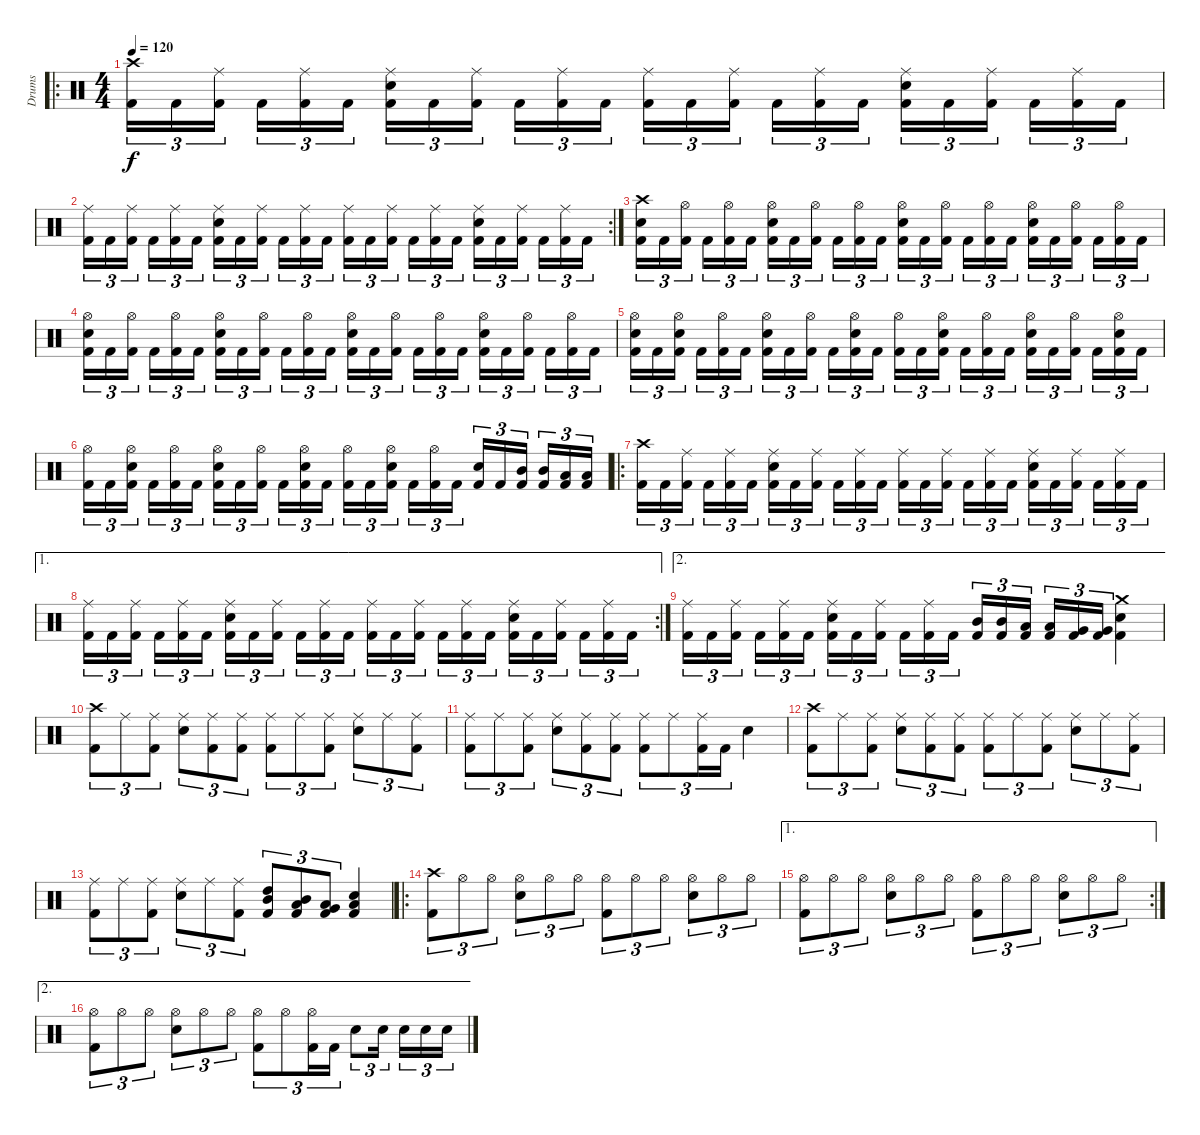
\track ("Drums" "Drums") {instrument percussion}
\staff {score}
\articulation defaults
\ro
\ts (4 4)
\tempo 120
\clef neutral
\ks c
("Crash high (hit)" "Kick (hit) 2").16{tu (3 2) dy f} "Kick (hit) 2".16{tu (3 2)} ("Ride (middle)" "Kick (hit) 2").16{tu (3 2)} "Kick (hit) 2".16{tu (3 2)} ("Ride (middle)" "Kick (hit) 2").16{tu (3 2)} "Kick (hit) 2".16{tu (3 2)} ("Ride (middle)" "Electric Snare (hit)" "Kick (hit) 2").16{tu (3 2)} "Kick (hit) 2".16{tu (3 2)} ("Ride (middle)" "Kick (hit) 2").16{tu (3 2)} "Kick (hit) 2".16{tu (3 2)} ("Ride (middle)" "Kick (hit) 2").16{tu (3 2)} "Kick (hit) 2".16{tu (3 2)} ("Ride (middle)" "Kick (hit) 2").16{tu (3 2)} "Kick (hit) 2".16{tu (3 2)} ("Ride (middle)" "Kick (hit) 2").16{tu (3 2)} "Kick (hit) 2".16{tu (3 2)} ("Ride (middle)" "Kick (hit) 2").16{tu (3 2)} "Kick (hit) 2".16{tu (3 2)} ("Ride (middle)" "Electric Snare (hit)" "Kick (hit) 2").16{tu (3 2)} "Kick (hit) 2".16{tu (3 2)} ("Ride (middle)" "Kick (hit) 2").16{tu (3 2)} "Kick (hit) 2".16{tu (3 2)} ("Ride (middle)" "Kick (hit) 2").16{tu (3 2)} "Kick (hit) 2".16{tu (3 2)} |
\rc 2
("Ride (middle)" "Kick (hit) 2").16{tu (3 2)} "Kick (hit) 2".16{tu (3 2)} ("Ride (middle)" "Kick (hit) 2").16{tu (3 2)} "Kick (hit) 2".16{tu (3 2)} ("Ride (middle)" "Kick (hit) 2").16{tu (3 2)} "Kick (hit) 2".16{tu (3 2)} ("Ride (middle)" "Electric Snare (hit)" "Kick (hit) 2").16{tu (3 2)} "Kick (hit) 2".16{tu (3 2)} ("Ride (middle)" "Kick (hit) 2").16{tu (3 2)} "Kick (hit) 2".16{tu (3 2)} ("Ride (middle)" "Kick (hit) 2").16{tu (3 2)} "Kick (hit) 2".16{tu (3 2)} ("Ride (middle)" "Kick (hit) 2").16{tu (3 2)} "Kick (hit) 2".16{tu (3 2)} ("Ride (middle)" "Kick (hit) 2").16{tu (3 2)} "Kick (hit) 2".16{tu (3 2)} ("Ride (middle)" "Kick (hit) 2").16{tu (3 2)} "Kick (hit) 2".16{tu (3 2)} ("Ride (middle)" "Electric Snare (hit)" "Kick (hit) 2").16{tu (3 2)} "Kick (hit) 2".16{tu (3 2)} ("Ride (middle)" "Kick (hit) 2").16{tu (3 2)} "Kick (hit) 2".16{tu (3 2)} ("Ride (middle)" "Kick (hit) 2").16{tu (3 2)} "Kick (hit) 2".16{tu (3 2)} |
("Crash high (hit)" "Electric Snare (hit)" "Kick (hit) 2").16{tu (3 2)} "Kick (hit) 2".16{tu (3 2)} ("Hi-Hat (open)" "Kick (hit) 2").16{tu (3 2)} "Kick (hit) 2".16{tu (3 2)} ("Hi-Hat (open)" "Kick (hit) 2").16{tu (3 2)} "Kick (hit) 2".16{tu (3 2)} ("Hi-Hat (open)" "Electric Snare (hit)" "Kick (hit) 2").16{tu (3 2)} "Kick (hit) 2".16{tu (3 2)} ("Hi-Hat (open)" "Kick (hit) 2").16{tu (3 2)} "Kick (hit) 2".16{tu (3 2)} ("Hi-Hat (open)" "Kick (hit) 2").16{tu (3 2)} "Kick (hit) 2".16{tu (3 2)} ("Hi-Hat (open)" "Electric Snare (hit)" "Kick (hit) 2").16{tu (3 2)} "Kick (hit) 2".16{tu (3 2)} ("Hi-Hat (open)" "Kick (hit) 2").16{tu (3 2)} "Kick (hit) 2".16{tu (3 2)} ("Hi-Hat (open)" "Kick (hit) 2").16{tu (3 2)} "Kick (hit) 2".16{tu (3 2)} ("Hi-Hat (open)" "Electric Snare (hit)" "Kick (hit) 2").16{tu (3 2)} "Kick (hit) 2".16{tu (3 2)} ("Hi-Hat (open)" "Kick (hit) 2").16{tu (3 2)} "Kick (hit) 2".16{tu (3 2)} ("Hi-Hat (open)" "Kick (hit) 2").16{tu (3 2)} "Kick (hit) 2".16{tu (3 2)} |
("Hi-Hat (open)" "Electric Snare (hit)" "Kick (hit) 2").16{tu (3 2)} "Kick (hit) 2".16{tu (3 2)} ("Hi-Hat (open)" "Kick (hit) 2").16{tu (3 2)} "Kick (hit) 2".16{tu (3 2)} ("Hi-Hat (open)" "Kick (hit) 2").16{tu (3 2)} "Kick (hit) 2".16{tu (3 2)} ("Hi-Hat (open)" "Electric Snare (hit)" "Kick (hit) 2").16{tu (3 2)} "Kick (hit) 2".16{tu (3 2)} ("Hi-Hat (open)" "Kick (hit) 2").16{tu (3 2)} "Kick (hit) 2".16{tu (3 2)} ("Hi-Hat (open)" "Kick (hit) 2").16{tu (3 2)} "Kick (hit) 2".16{tu (3 2)} ("Hi-Hat (open)" "Electric Snare (hit)" "Kick (hit) 2").16{tu (3 2)} "Kick (hit) 2".16{tu (3 2)} ("Hi-Hat (open)" "Kick (hit) 2").16{tu (3 2)} "Kick (hit) 2".16{tu (3 2)} ("Hi-Hat (open)" "Kick (hit) 2").16{tu (3 2)} "Kick (hit) 2".16{tu (3 2)} ("Hi-Hat (open)" "Electric Snare (hit)" "Kick (hit) 2").16{tu (3 2)} "Kick (hit) 2".16{tu (3 2)} ("Hi-Hat (open)" "Kick (hit) 2").16{tu (3 2)} "Kick (hit) 2".16{tu (3 2)} ("Hi-Hat (open)" "Kick (hit) 2").16{tu (3 2)} "Kick (hit) 2".16{tu (3 2)} |
("Hi-Hat (open)" "Electric Snare (hit)" "Kick (hit) 2").16{tu (3 2)} "Kick (hit) 2".16{tu (3 2)} ("Hi-Hat (open)" "Electric Snare (hit)" "Kick (hit) 2").16{tu (3 2)} "Kick (hit) 2".16{tu (3 2)} ("Hi-Hat (open)" "Kick (hit) 2").16{tu (3 2)} "Kick (hit) 2".16{tu (3 2)} ("Hi-Hat (open)" "Electric Snare (hit)" "Kick (hit) 2").16{tu (3 2)} "Kick (hit) 2".16{tu (3 2)} ("Hi-Hat (open)" "Kick (hit) 2").16{tu (3 2)} "Kick (hit) 2".16{tu (3 2)} ("Hi-Hat (open)" "Electric Snare (hit)" "Kick (hit) 2").16{tu (3 2)} "Kick (hit) 2".16{tu (3 2)} ("Hi-Hat (open)" "Kick (hit) 2").16{tu (3 2)} "Kick (hit) 2".16{tu (3 2)} ("Hi-Hat (open)" "Electric Snare (hit)" "Kick (hit) 2").16{tu (3 2)} "Kick (hit) 2".16{tu (3 2)} ("Hi-Hat (open)" "Kick (hit) 2").16{tu (3 2)} "Kick (hit) 2".16{tu (3 2)} ("Hi-Hat (open)" "Electric Snare (hit)" "Kick (hit) 2").16{tu (3 2)} "Kick (hit) 2".16{tu (3 2)} ("Hi-Hat (open)" "Kick (hit) 2").16{tu (3 2)} "Kick (hit) 2".16{tu (3 2)} ("Hi-Hat (open)" "Electric Snare (hit)" "Kick (hit) 2").16{tu (3 2)} "Kick (hit) 2".16{tu (3 2)} |
("Hi-Hat (open)" "Kick (hit) 2").16{tu (3 2)} "Kick (hit) 2".16{tu (3 2)} ("Hi-Hat (open)" "Electric Snare (hit)" "Kick (hit) 2").16{tu (3 2)} "Kick (hit) 2".16{tu (3 2)} ("Hi-Hat (open)" "Kick (hit) 2").16{tu (3 2)} "Kick (hit) 2".16{tu (3 2)} ("Hi-Hat (open)" "Electric Snare (hit)" "Kick (hit) 2").16{tu (3 2)} "Kick (hit) 2".16{tu (3 2)} ("Hi-Hat (open)" "Kick (hit) 2").16{tu (3 2)} "Kick (hit) 2".16{tu (3 2)} ("Hi-Hat (open)" "Electric Snare (hit)" "Kick (hit) 2").16{tu (3 2)} "Kick (hit) 2".16{tu (3 2)} ("Hi-Hat (open)" "Kick (hit) 2").16{tu (3 2)} "Kick (hit) 2".16{tu (3 2)} ("Hi-Hat (open)" "Electric Snare (hit)" "Kick (hit) 2").16{tu (3 2)} "Kick (hit) 2".16{tu (3 2)} ("Hi-Hat (open)" "Kick (hit) 2").16{tu (3 2)} "Kick (hit) 2".16{tu (3 2)} ("Electric Snare (hit)" "Kick (hit) 2").16{tu (3 2)} "Kick (hit) 2".16{tu (3 2)} ("Mid Tom (hit)" "Kick (hit) 2").16{tu (3 2)} ("Mid Tom (hit)" "Kick (hit) 2").16{tu (3 2)} ("Low Tom (hit)" "Kick (hit) 2").16{tu (3 2)} ("Low Tom (hit)" "Kick (hit) 2").16{tu (3 2)} |
\ro
("Crash high (hit)" "Kick (hit) 2").16{tu (3 2)} "Kick (hit) 2".16{tu (3 2)} ("Ride (middle)" "Kick (hit) 2").16{tu (3 2)} "Kick (hit) 2".16{tu (3 2)} ("Ride (middle)" "Kick (hit) 2").16{tu (3 2)} "Kick (hit) 2".16{tu (3 2)} ("Ride (middle)" "Electric Snare (hit)" "Kick (hit) 2").16{tu (3 2)} "Kick (hit) 2".16{tu (3 2)} ("Ride (middle)" "Kick (hit) 2").16{tu (3 2)} "Kick (hit) 2".16{tu (3 2)} ("Ride (middle)" "Kick (hit) 2").16{tu (3 2)} "Kick (hit) 2".16{tu (3 2)} ("Ride (middle)" "Kick (hit) 2").16{tu (3 2)} "Kick (hit) 2".16{tu (3 2)} ("Ride (middle)" "Kick (hit) 2").16{tu (3 2)} "Kick (hit) 2".16{tu (3 2)} ("Ride (middle)" "Kick (hit) 2").16{tu (3 2)} "Kick (hit) 2".16{tu (3 2)} ("Ride (middle)" "Electric Snare (hit)" "Kick (hit) 2").16{tu (3 2)} "Kick (hit) 2".16{tu (3 2)} ("Ride (middle)" "Kick (hit) 2").16{tu (3 2)} "Kick (hit) 2".16{tu (3 2)} ("Ride (middle)" "Kick (hit) 2").16{tu (3 2)} "Kick (hit) 2".16{tu (3 2)} |
\ae 1
\rc 2
("Ride (middle)" "Kick (hit) 2").16{tu (3 2)} "Kick (hit) 2".16{tu (3 2)} ("Ride (middle)" "Kick (hit) 2").16{tu (3 2)} "Kick (hit) 2".16{tu (3 2)} ("Ride (middle)" "Kick (hit) 2").16{tu (3 2)} "Kick (hit) 2".16{tu (3 2)} ("Ride (middle)" "Electric Snare (hit)" "Kick (hit) 2").16{tu (3 2)} "Kick (hit) 2".16{tu (3 2)} ("Ride (middle)" "Kick (hit) 2").16{tu (3 2)} "Kick (hit) 2".16{tu (3 2)} ("Ride (middle)" "Kick (hit) 2").16{tu (3 2)} "Kick (hit) 2".16{tu (3 2)} ("Ride (middle)" "Kick (hit) 2").16{tu (3 2)} "Kick (hit) 2".16{tu (3 2)} ("Ride (middle)" "Kick (hit) 2").16{tu (3 2)} "Kick (hit) 2".16{tu (3 2)} ("Ride (middle)" "Kick (hit) 2").16{tu (3 2)} "Kick (hit) 2".16{tu (3 2)} ("Ride (middle)" "Electric Snare (hit)" "Kick (hit) 2").16{tu (3 2)} "Kick (hit) 2".16{tu (3 2)} ("Ride (middle)" "Kick (hit) 2").16{tu (3 2)} "Kick (hit) 2".16{tu (3 2)} ("Ride (middle)" "Kick (hit) 2").16{tu (3 2)} "Kick (hit) 2".16{tu (3 2)} |
\ae 2
("Ride (middle)" "Kick (hit) 2").16{tu (3 2)} "Kick (hit) 2".16{tu (3 2)} ("Ride (middle)" "Kick (hit) 2").16{tu (3 2)} "Kick (hit) 2".16{tu (3 2)} ("Ride (middle)" "Kick (hit) 2").16{tu (3 2)} "Kick (hit) 2".16{tu (3 2)} ("Ride (middle)" "Electric Snare (hit)" "Kick (hit) 2").16{tu (3 2)} "Kick (hit) 2".16{tu (3 2)} ("Ride (middle)" "Kick (hit) 2").16{tu (3 2)} "Kick (hit) 2".16{tu (3 2)} ("Ride (middle)" "Kick (hit) 2").16{tu (3 2)} "Kick (hit) 2".16{tu (3 2)} ("Mid Tom (hit)" "Kick (hit) 2").16{tu (3 2)} ("Mid Tom (hit)" "Kick (hit) 2").16{tu (3 2)} ("Low Tom (hit)" "Kick (hit) 2").16{tu (3 2)} ("Low Tom (hit)" "Kick (hit) 2").16{tu (3 2)} ("Very Low Tom (hit)" "Kick (hit) 2").16{tu (3 2)} ("Very Low Tom (hit)" "Kick (hit) 2").16{tu (3 2)} ("Crash medium (hit)" "Electric Snare (hit)" "Kick (hit) 2").4 |
("Crash high (hit)" "Kick (hit) 2").8{tu (3 2)} "Ride (middle)".8{tu (3 2)} ("Ride (middle)" "Kick (hit) 2").8{tu (3 2)} ("Ride (middle)" "Electric Snare (hit)").8{tu (3 2)} ("Ride (middle)" "Kick (hit) 2").8{tu (3 2)} ("Ride (middle)" "Kick (hit) 2").8{tu (3 2)} ("Ride (middle)" "Kick (hit) 2").8{tu (3 2)} "Ride (middle)".8{tu (3 2)} ("Ride (middle)" "Kick (hit) 2").8{tu (3 2)} ("Ride (middle)" "Electric Snare (hit)").8{tu (3 2)} "Ride (middle)".8{tu (3 2)} ("Ride (middle)" "Kick (hit) 2").8{tu (3 2)} |
("Ride (middle)" "Kick (hit) 2").8{tu (3 2)} "Ride (middle)".8{tu (3 2)} ("Ride (middle)" "Kick (hit) 2").8{tu (3 2)} ("Ride (middle)" "Electric Snare (hit)").8{tu (3 2)} ("Ride (middle)" "Kick (hit) 2").8{tu (3 2)} ("Ride (middle)" "Kick (hit) 2").8{tu (3 2)} ("Ride (middle)" "Kick (hit) 2").8{tu (3 2)} "Ride (middle)".8{tu (3 2)} ("Ride (middle)" "Kick (hit) 2").16{tu (3 2)} "Kick (hit) 2".16{tu (3 2)} "Electric Snare (hit)".4 |
("Crash high (hit)" "Kick (hit) 2").8{tu (3 2)} "Ride (middle)".8{tu (3 2)} ("Ride (middle)" "Kick (hit) 2").8{tu (3 2)} ("Ride (middle)" "Electric Snare (hit)").8{tu (3 2)} ("Ride (middle)" "Kick (hit) 2").8{tu (3 2)} ("Ride (middle)" "Kick (hit) 2").8{tu (3 2)} ("Ride (middle)" "Kick (hit) 2").8{tu (3 2)} "Ride (middle)".8{tu (3 2)} ("Ride (middle)" "Kick (hit) 2").8{tu (3 2)} ("Ride (middle)" "Electric Snare (hit)").8{tu (3 2)} "Ride (middle)".8{tu (3 2)} ("Ride (middle)" "Kick (hit) 2").8{tu (3 2)} |
("Ride (middle)" "Kick (hit) 2").8{tu (3 2)} "Ride (middle)".8{tu (3 2)} ("Ride (middle)" "Kick (hit) 2").8{tu (3 2)} ("Ride (middle)" "Electric Snare (hit)").8{tu (3 2)} "Ride (middle)".8{tu (3 2)} ("Ride (middle)" "Kick (hit) 2").8{tu (3 2)} ("High Tom (hit)" "Mid Tom (hit)" "Kick (hit) 2").8{tu (3 2)} ("Mid Tom (hit)" "Low Tom (hit)" "Kick (hit) 2").8{tu (3 2)} ("Low Tom (hit)" "Very Low Tom (hit)" "Kick (hit) 2").8{tu (3 2)} ("Low Floor Tom (hit)" "Electric Snare (hit)" "Kick (hit) 2").4 |
\ro
("Crash high (hit)" "Kick (hit) 2").8{tu (3 2)} "Hi-Hat (open)".8{tu (3 2)} "Hi-Hat (open)".8{tu (3 2)} ("Hi-Hat (open)" "Electric Snare (hit)").8{tu (3 2)} "Hi-Hat (open)".8{tu (3 2)} "Hi-Hat (open)".8{tu (3 2)} ("Hi-Hat (open)" "Kick (hit) 2").8{tu (3 2)} "Hi-Hat (open)".8{tu (3 2)} "Hi-Hat (open)".8{tu (3 2)} ("Hi-Hat (open)" "Electric Snare (hit)").8{tu (3 2)} "Hi-Hat (open)".8{tu (3 2)} "Hi-Hat (open)".8{tu (3 2)} |
\ae 1
\rc 2
("Hi-Hat (open)" "Kick (hit) 2").8{tu (3 2)} "Hi-Hat (open)".8{tu (3 2)} "Hi-Hat (open)".8{tu (3 2)} ("Hi-Hat (open)" "Electric Snare (hit)").8{tu (3 2)} "Hi-Hat (open)".8{tu (3 2)} "Hi-Hat (open)".8{tu (3 2)} ("Hi-Hat (open)" "Kick (hit) 2").8{tu (3 2)} "Hi-Hat (open)".8{tu (3 2)} "Hi-Hat (open)".8{tu (3 2)} ("Hi-Hat (open)" "Electric Snare (hit)").8{tu (3 2)} "Hi-Hat (open)".8{tu (3 2)} "Hi-Hat (open)".8{tu (3 2)} |
\ae 2
("Hi-Hat (open)" "Kick (hit) 2").8{tu (3 2)} "Hi-Hat (open)".8{tu (3 2)} "Hi-Hat (open)".8{tu (3 2)} ("Hi-Hat (open)" "Electric Snare (hit)").8{tu (3 2)} "Hi-Hat (open)".8{tu (3 2)} "Hi-Hat (open)".8{tu (3 2)} ("Hi-Hat (open)" "Kick (hit) 2").8{tu (3 2)} "Hi-Hat (open)".8{tu (3 2)} ("Hi-Hat (open)" "Kick (hit) 2").16{tu (3 2)} "Kick (hit) 2".16{tu (3 2)} "Electric Snare (hit)".8{tu (3 2)} "Electric Snare (hit)".16{tu (3 2)} "Electric Snare (hit)".16{tu (3 2)} "Electric Snare (hit)".16{tu (3 2)} "Electric Snare (hit)".16{tu (3 2)}
